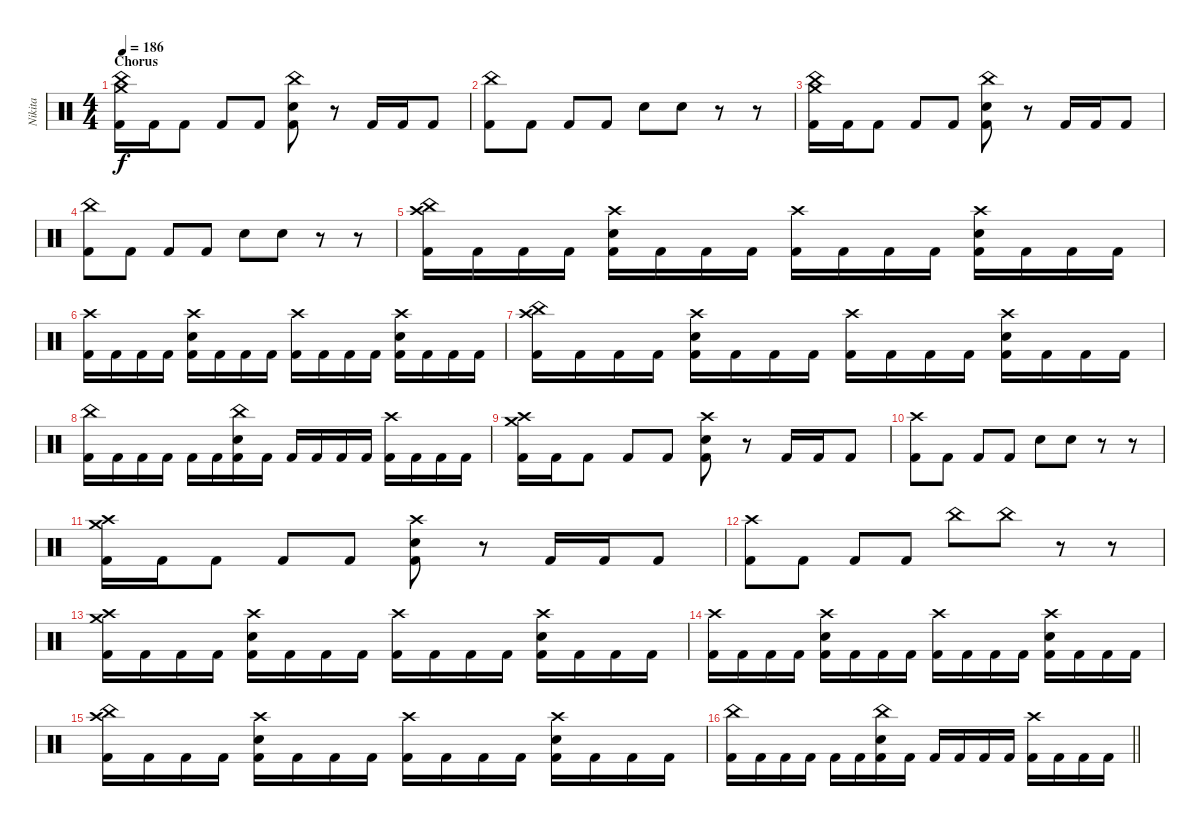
\track ("Nikita" "Nikita") {instrument percussion}
\staff {score}
\articulation defaults
\ts (4 4)
\section ("" "Chorus")
\tempo 186
\clef neutral
\ks c
("China (hit)" "Crash medium (hit)" "Kick (hit) 2").16{dy f} "Kick (hit) 2".16 "Kick (hit) 2".8 "Kick (hit) 2".8 "Kick (hit) 2".8 ("China (hit)" "Electric Snare (hit)" "Kick (hit) 2").8 r.8 "Kick (hit) 2".16 "Kick (hit) 2".16 "Kick (hit) 2".8 |
("China (hit)" "Kick (hit) 2").8 "Kick (hit) 2".8 "Kick (hit) 2".8 "Kick (hit) 2".8 "Electric Snare (hit)".8 "Electric Snare (hit)".8 r.8 r.8 |
("China (hit)" "Crash medium (hit)" "Kick (hit) 2").16 "Kick (hit) 2".16 "Kick (hit) 2".8 "Kick (hit) 2".8 "Kick (hit) 2".8 ("China (hit)" "Electric Snare (hit)" "Kick (hit) 2").8 r.8 "Kick (hit) 2".16 "Kick (hit) 2".16 "Kick (hit) 2".8 |
("China (hit)" "Kick (hit) 2").8 "Kick (hit) 2".8 "Kick (hit) 2".8 "Kick (hit) 2".8 "Electric Snare (hit)".8 "Electric Snare (hit)".8 r.8 r.8 |
("China (hit)" "Crash high (hit)" "Kick (hit) 2").16 "Kick (hit) 2".16 "Kick (hit) 2".16 "Kick (hit) 2".16 ("Crash high (hit)" "Electric Snare (hit)" "Kick (hit) 2").16 "Kick (hit) 2".16 "Kick (hit) 2".16 "Kick (hit) 2".16 ("Crash high (hit)" "Kick (hit) 2").16 "Kick (hit) 2".16 "Kick (hit) 2".16 "Kick (hit) 2".16 ("Crash high (hit)" "Electric Snare (hit)" "Kick (hit) 2").16 "Kick (hit) 2".16 "Kick (hit) 2".16 "Kick (hit) 2".16 |
("Crash high (hit)" "Kick (hit) 2").16 "Kick (hit) 2".16 "Kick (hit) 2".16 "Kick (hit) 2".16 ("Crash high (hit)" "Electric Snare (hit)" "Kick (hit) 2").16 "Kick (hit) 2".16 "Kick (hit) 2".16 "Kick (hit) 2".16 ("Crash high (hit)" "Kick (hit) 2").16 "Kick (hit) 2".16 "Kick (hit) 2".16 "Kick (hit) 2".16 ("Crash high (hit)" "Electric Snare (hit)" "Kick (hit) 2").16 "Kick (hit) 2".16 "Kick (hit) 2".16 "Kick (hit) 2".16 |
("China (hit)" "Crash high (hit)" "Kick (hit) 2").16 "Kick (hit) 2".16 "Kick (hit) 2".16 "Kick (hit) 2".16 ("Crash high (hit)" "Electric Snare (hit)" "Kick (hit) 2").16 "Kick (hit) 2".16 "Kick (hit) 2".16 "Kick (hit) 2".16 ("Crash high (hit)" "Kick (hit) 2").16 "Kick (hit) 2".16 "Kick (hit) 2".16 "Kick (hit) 2".16 ("Crash high (hit)" "Electric Snare (hit)" "Kick (hit) 2").16 "Kick (hit) 2".16 "Kick (hit) 2".16 "Kick (hit) 2".16 |
("China (hit)" "Kick (hit) 2").16 "Kick (hit) 2".16 "Kick (hit) 2".16 "Kick (hit) 2".16 "Kick (hit) 2".16 "Kick (hit) 2".16 ("China (hit)" "Electric Snare (hit)" "Kick (hit) 2").16 "Kick (hit) 2".16 "Kick (hit) 2".16 "Kick (hit) 2".16 "Kick (hit) 2".16 "Kick (hit) 2".16 ("Crash high (hit)" "Kick (hit) 2").16 "Kick (hit) 2".16 "Kick (hit) 2".16 "Kick (hit) 2".16 |
("Crash high (hit)" "Crash medium (hit)" "Kick (hit) 2").16 "Kick (hit) 2".16 "Kick (hit) 2".8 "Kick (hit) 2".8 "Kick (hit) 2".8 ("Crash high (hit)" "Electric Snare (hit)" "Kick (hit) 2").8 r.8 "Kick (hit) 2".16 "Kick (hit) 2".16 "Kick (hit) 2".8 |
("Crash high (hit)" "Kick (hit) 2").8 "Kick (hit) 2".8 "Kick (hit) 2".8 "Kick (hit) 2".8 "Electric Snare (hit)".8 "Electric Snare (hit)".8 r.8 r.8 |
("Crash high (hit)" "Crash medium (hit)" "Kick (hit) 2").16 "Kick (hit) 2".16 "Kick (hit) 2".8 "Kick (hit) 2".8 "Kick (hit) 2".8 ("Crash high (hit)" "Electric Snare (hit)" "Kick (hit) 2").8 r.8 "Kick (hit) 2".16 "Kick (hit) 2".16 "Kick (hit) 2".8 |
("Crash high (hit)" "Kick (hit) 2").8 "Kick (hit) 2".8 "Kick (hit) 2".8 "Kick (hit) 2".8 "China (hit)".8 "China (hit)".8 r.8 r.8 |
("Crash medium (hit)" "Crash high (hit)" "Kick (hit) 2").16 "Kick (hit) 2".16 "Kick (hit) 2".16 "Kick (hit) 2".16 ("Crash high (hit)" "Electric Snare (hit)" "Kick (hit) 2").16 "Kick (hit) 2".16 "Kick (hit) 2".16 "Kick (hit) 2".16 ("Crash high (hit)" "Kick (hit) 2").16 "Kick (hit) 2".16 "Kick (hit) 2".16 "Kick (hit) 2".16 ("Crash high (hit)" "Electric Snare (hit)" "Kick (hit) 2").16 "Kick (hit) 2".16 "Kick (hit) 2".16 "Kick (hit) 2".16 |
("Crash high (hit)" "Kick (hit) 2").16 "Kick (hit) 2".16 "Kick (hit) 2".16 "Kick (hit) 2".16 ("Crash high (hit)" "Electric Snare (hit)" "Kick (hit) 2").16 "Kick (hit) 2".16 "Kick (hit) 2".16 "Kick (hit) 2".16 ("Crash high (hit)" "Kick (hit) 2").16 "Kick (hit) 2".16 "Kick (hit) 2".16 "Kick (hit) 2".16 ("Crash high (hit)" "Electric Snare (hit)" "Kick (hit) 2").16 "Kick (hit) 2".16 "Kick (hit) 2".16 "Kick (hit) 2".16 |
("China (hit)" "Crash high (hit)" "Kick (hit) 2").16 "Kick (hit) 2".16 "Kick (hit) 2".16 "Kick (hit) 2".16 ("Crash high (hit)" "Electric Snare (hit)" "Kick (hit) 2").16 "Kick (hit) 2".16 "Kick (hit) 2".16 "Kick (hit) 2".16 ("Crash high (hit)" "Kick (hit) 2").16 "Kick (hit) 2".16 "Kick (hit) 2".16 "Kick (hit) 2".16 ("Crash high (hit)" "Electric Snare (hit)" "Kick (hit) 2").16 "Kick (hit) 2".16 "Kick (hit) 2".16 "Kick (hit) 2".16 |
\barLineRight lightlight
("China (hit)" "Kick (hit) 2").16 "Kick (hit) 2".16 "Kick (hit) 2".16 "Kick (hit) 2".16 "Kick (hit) 2".16 "Kick (hit) 2".16 ("China (hit)" "Electric Snare (hit)" "Kick (hit) 2").16 "Kick (hit) 2".16 "Kick (hit) 2".16 "Kick (hit) 2".16 "Kick (hit) 2".16 "Kick (hit) 2".16 ("Crash high (hit)" "Kick (hit) 2").16 "Kick (hit) 2".16 "Kick (hit) 2".16 "Kick (hit) 2".16
